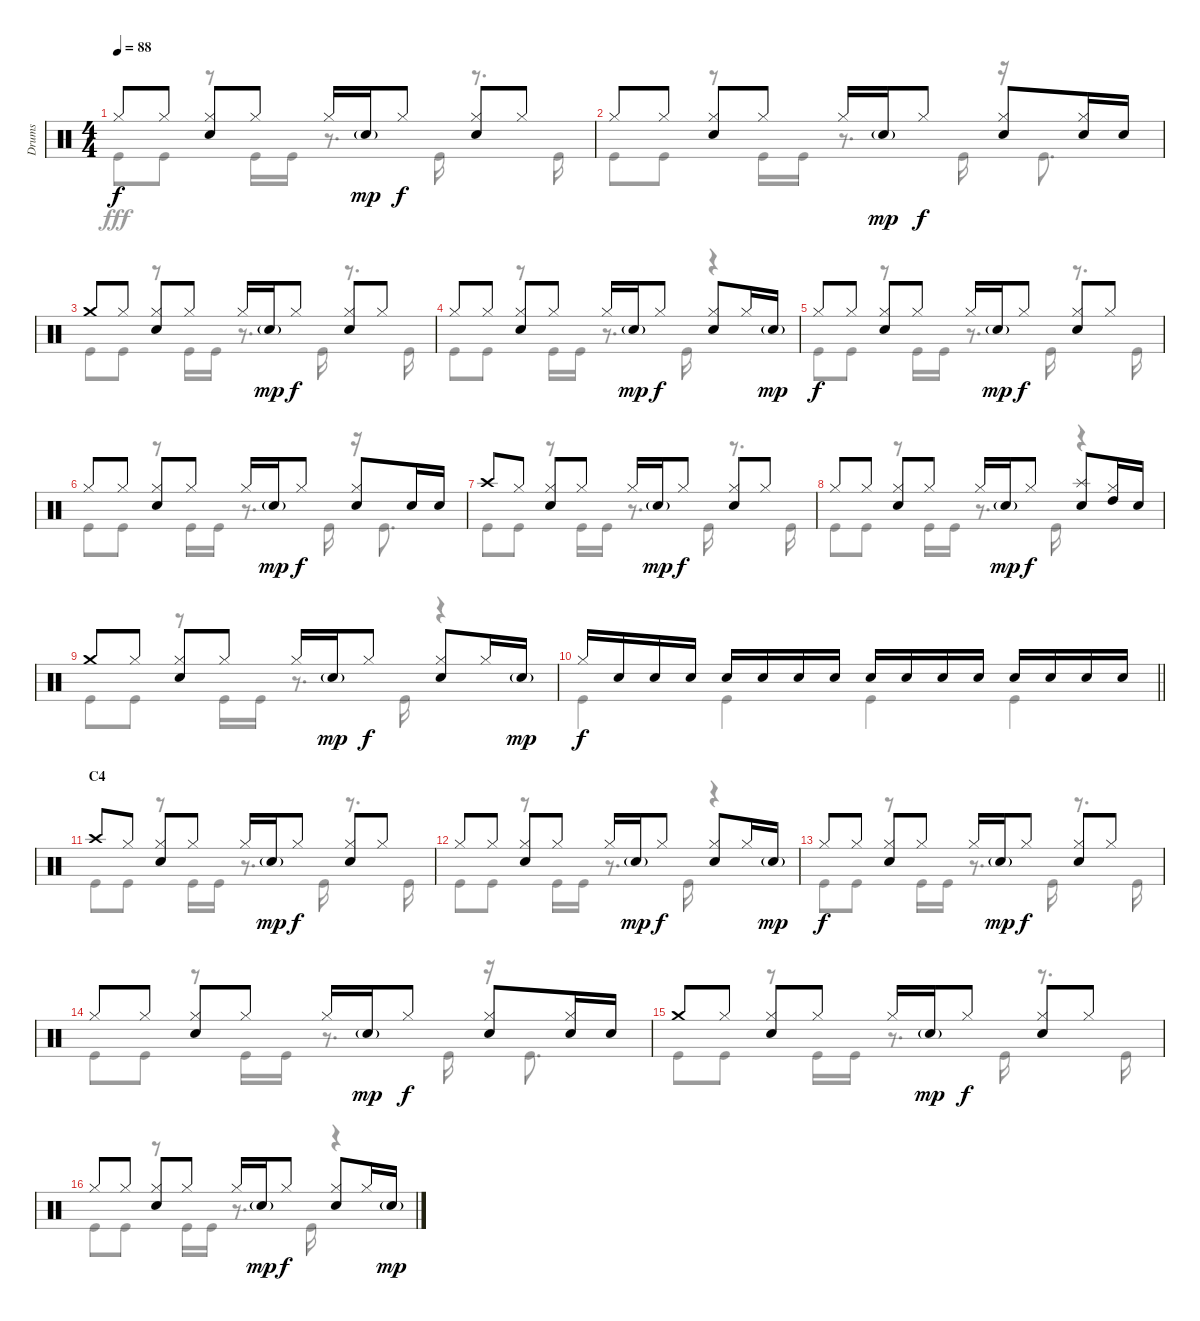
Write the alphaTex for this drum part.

\track ("Drums" "Drums") {instrument percussion}
\staff {score}
\articulation defaults
\voice
\ts (4 4)
\tempo 88
\clef neutral
\ks c "Hi-Hat (closed)".8{dy f} "Hi-Hat (closed)".8
("Hi-Hat (closed)" "Snare (hit) 2").8 "Hi-Hat (closed)".8 "Hi-Hat (closed)".16 "Snare (hit) 2"{g}.16{dy mp} "Hi-Hat (closed)".8{dy f} ("Hi-Hat (closed)" "Snare (hit) 2").8 "Hi-Hat (closed)".8 |
"Hi-Hat (closed)".8 "Hi-Hat (closed)".8 ("Hi-Hat (closed)" "Snare (hit) 2").8 "Hi-Hat (closed)".8 "Hi-Hat (closed)".16 "Snare (hit) 2"{g}.16{dy mp} "Hi-Hat (closed)".8{dy f} ("Hi-Hat (closed)" "Snare (hit) 2").8 ("Hi-Hat (closed)" "Snare (hit) 2").16 "Snare (hit) 2".16 |
"Crash medium (hit)".8 "Hi-Hat (closed)".8 ("Hi-Hat (closed)" "Snare (hit) 2").8 "Hi-Hat (closed)".8 "Hi-Hat (closed)".16 "Snare (hit) 2"{g}.16{dy mp} "Hi-Hat (closed)".8{dy f} ("Hi-Hat (closed)" "Snare (hit) 2").8 "Hi-Hat (closed)".8 |
"Hi-Hat (closed)".8 "Hi-Hat (closed)".8 ("Hi-Hat (closed)" "Snare (hit) 2").8 "Hi-Hat (closed)".8 "Hi-Hat (closed)".16 "Snare (hit) 2"{g}.16{dy mp} "Hi-Hat (closed)".8{dy f} ("Hi-Hat (closed)" "Snare (hit) 2").8 "Hi-Hat (closed)".16 "Snare (hit) 2"{g}.16{dy mp} |
"Hi-Hat (closed)".8{dy f} "Hi-Hat (closed)".8 ("Hi-Hat (closed)" "Snare (hit) 2").8 "Hi-Hat (closed)".8 "Hi-Hat (closed)".16 "Snare (hit) 2"{g}.16{dy mp} "Hi-Hat (closed)".8{dy f} ("Hi-Hat (closed)" "Snare (hit) 2").8 "Hi-Hat (closed)".8 |
"Hi-Hat (closed)".8 "Hi-Hat (closed)".8 ("Hi-Hat (closed)" "Snare (hit) 2").8 "Hi-Hat (closed)".8 "Hi-Hat (closed)".16 "Snare (hit) 2"{g}.16{dy mp} "Hi-Hat (closed)".8{dy f} ("Hi-Hat (closed)" "Snare (hit) 2").8 "Snare (hit) 2".16 "Snare (hit) 2".16 |
"Crash high (hit)".8 "Hi-Hat (closed)".8 ("Hi-Hat (closed)" "Snare (hit) 2").8 "Hi-Hat (closed)".8 "Hi-Hat (closed)".16 "Snare (hit) 2"{g}.16{dy mp} "Hi-Hat (closed)".8{dy f} ("Hi-Hat (closed)" "Snare (hit) 2").8 "Hi-Hat (closed)".8 |
"Hi-Hat (closed)".8 "Hi-Hat (closed)".8 ("Hi-Hat (closed)" "Snare (hit) 2").8 "Hi-Hat (closed)".8 "Hi-Hat (closed)".16 "Snare (hit) 2"{g}.16{dy mp} "Hi-Hat (closed)".8{dy f} ("Splash (hit)" "Snare (hit) 2").8 ("Hi-Hat (closed)" "High Tom (hit)").16 "Snare (hit) 2".16 |
"Crash medium (hit)".8 "Hi-Hat (closed)".8 ("Hi-Hat (closed)" "Snare (hit) 2").8 "Hi-Hat (closed)".8 "Hi-Hat (closed)".16 "Snare (hit) 2"{g}.16{dy mp} "Hi-Hat (closed)".8{dy f} ("Hi-Hat (closed)" "Snare (hit) 2").8 "Hi-Hat (closed)".16 "Snare (hit) 2"{g}.16{dy mp} |
\barLineRight lightlight "Hi-Hat (closed)".16{dy f} "Snare (hit) 2".16 "Snare (hit) 2".16 "Snare (hit) 2".16 "Snare (hit) 2".16 "Snare (hit) 2".16 "Snare (hit) 2".16 "Snare (hit) 2".16 "Snare (hit) 2".16 "Snare (hit) 2".16 "Snare (hit) 2".16 "Snare (hit) 2".16 "Snare (hit) 2".16 "Snare (hit) 2".16 "Snare (hit) 2".16 "Snare (hit) 2".16
|
\section ("" "C4")
"Crash high (hit)".8 "Hi-Hat (closed)".8 ("Hi-Hat (closed)" "Snare (hit) 2").8 "Hi-Hat (closed)".8 "Hi-Hat (closed)".16 "Snare (hit) 2"{g}.16{dy mp} "Hi-Hat (closed)".8{dy f} ("Hi-Hat (closed)" "Snare (hit) 2").8 "Hi-Hat (closed)".8 |
"Hi-Hat (closed)".8 "Hi-Hat (closed)".8 ("Hi-Hat (closed)" "Snare (hit) 2").8 "Hi-Hat (closed)".8 "Hi-Hat (closed)".16 "Snare (hit) 2"{g}.16{dy mp} "Hi-Hat (closed)".8{dy f} ("Hi-Hat (closed)" "Snare (hit) 2").8 "Hi-Hat (closed)".16 "Snare (hit) 2"{g}.16{dy mp} |
"Hi-Hat (closed)".8{dy f} "Hi-Hat (closed)".8 ("Hi-Hat (closed)" "Snare (hit) 2").8 "Hi-Hat (closed)".8 "Hi-Hat (closed)".16 "Snare (hit) 2"{g}.16{dy mp} "Hi-Hat (closed)".8{dy f} ("Hi-Hat (closed)" "Snare (hit) 2").8 "Hi-Hat (closed)".8 |
"Hi-Hat (closed)".8 "Hi-Hat (closed)".8 ("Hi-Hat (closed)" "Snare (hit) 2").8 "Hi-Hat (closed)".8 "Hi-Hat (closed)".16 "Snare (hit) 2"{g}.16{dy mp} "Hi-Hat (closed)".8{dy f} ("Hi-Hat (closed)" "Snare (hit) 2").8 ("Hi-Hat (closed)" "Snare (hit) 2").16 "Snare (hit) 2".16 |
"Crash medium (hit)".8 "Hi-Hat (closed)".8 ("Hi-Hat (closed)" "Snare (hit) 2").8 "Hi-Hat (closed)".8 "Hi-Hat (closed)".16 "Snare (hit) 2"{g}.16{dy mp} "Hi-Hat (closed)".8{dy f} ("Hi-Hat (closed)" "Snare (hit) 2").8 "Hi-Hat (closed)".8 |
"Hi-Hat (closed)".8 "Hi-Hat (closed)".8 ("Hi-Hat (closed)" "Snare (hit) 2").8 "Hi-Hat (closed)".8 "Hi-Hat (closed)".16 "Snare (hit) 2"{g}.16{dy mp} "Hi-Hat (closed)".8{dy f} ("Hi-Hat (closed)" "Snare (hit) 2").8 "Hi-Hat (closed)".16 "Snare (hit) 2"{g}.16{dy mp}
\voice
\clef neutral
\ottava regular
\simile none
\ks c "Kick (hit)".8{dy fff} "Kick (hit)".8
r.8 "Kick (hit)".16 "Kick (hit)".16 r.8{d} "Kick (hit)".16 r.8{d} "Kick (hit)".16 |
"Kick (hit)".8 "Kick (hit)".8 r.8 "Kick (hit)".16 "Kick (hit)".16 r.8{d} "Kick (hit)".16 r.16 "Kick (hit)".8{d} |
"Kick (hit)".8 "Kick (hit)".8 r.8 "Kick (hit)".16 "Kick (hit)".16 r.8{d} "Kick (hit)".16 r.8{d} "Kick (hit)".16 |
"Kick (hit)".8 "Kick (hit)".8 r.8 "Kick (hit)".16 "Kick (hit)".16 r.8{d} "Kick (hit)".16 r.4 |
"Kick (hit)".8 "Kick (hit)".8 r.8 "Kick (hit)".16 "Kick (hit)".16 r.8{d} "Kick (hit)".16 r.8{d} "Kick (hit)".16 |
"Kick (hit)".8 "Kick (hit)".8 r.8 "Kick (hit)".16 "Kick (hit)".16 r.8{d} "Kick (hit)".16 r.16 "Kick (hit)".8{d} |
"Kick (hit)".8 "Kick (hit)".8 r.8 "Kick (hit)".16 "Kick (hit)".16 r.8{d} "Kick (hit)".16 r.8{d} "Kick (hit)".16 |
"Kick (hit)".8 "Kick (hit)".8 r.8 "Kick (hit)".16 "Kick (hit)".16 r.8{d} "Kick (hit)".16 r.4 |
"Kick (hit)".8 "Kick (hit)".8 r.8 "Kick (hit)".16 "Kick (hit)".16 r.8{d} "Kick (hit)".16 r.4 |
\barLineRight lightlight "Kick (hit)".4 "Kick (hit)".4 "Kick (hit)".4 "Kick (hit)".4
|
"Kick (hit)".8 "Kick (hit)".8 r.8 "Kick (hit)".16 "Kick (hit)".16 r.8{d} "Kick (hit)".16 r.8{d} "Kick (hit)".16 |
"Kick (hit)".8 "Kick (hit)".8 r.8 "Kick (hit)".16 "Kick (hit)".16 r.8{d} "Kick (hit)".16 r.4 |
"Kick (hit)".8 "Kick (hit)".8 r.8 "Kick (hit)".16 "Kick (hit)".16 r.8{d} "Kick (hit)".16 r.8{d} "Kick (hit)".16 |
"Kick (hit)".8 "Kick (hit)".8 r.8 "Kick (hit)".16 "Kick (hit)".16 r.8{d} "Kick (hit)".16 r.16 "Kick (hit)".8{d} |
"Kick (hit)".8 "Kick (hit)".8 r.8 "Kick (hit)".16 "Kick (hit)".16 r.8{d} "Kick (hit)".16 r.8{d} "Kick (hit)".16 |
"Kick (hit)".8 "Kick (hit)".8 r.8 "Kick (hit)".16 "Kick (hit)".16 r.8{d} "Kick (hit)".16 r.4
